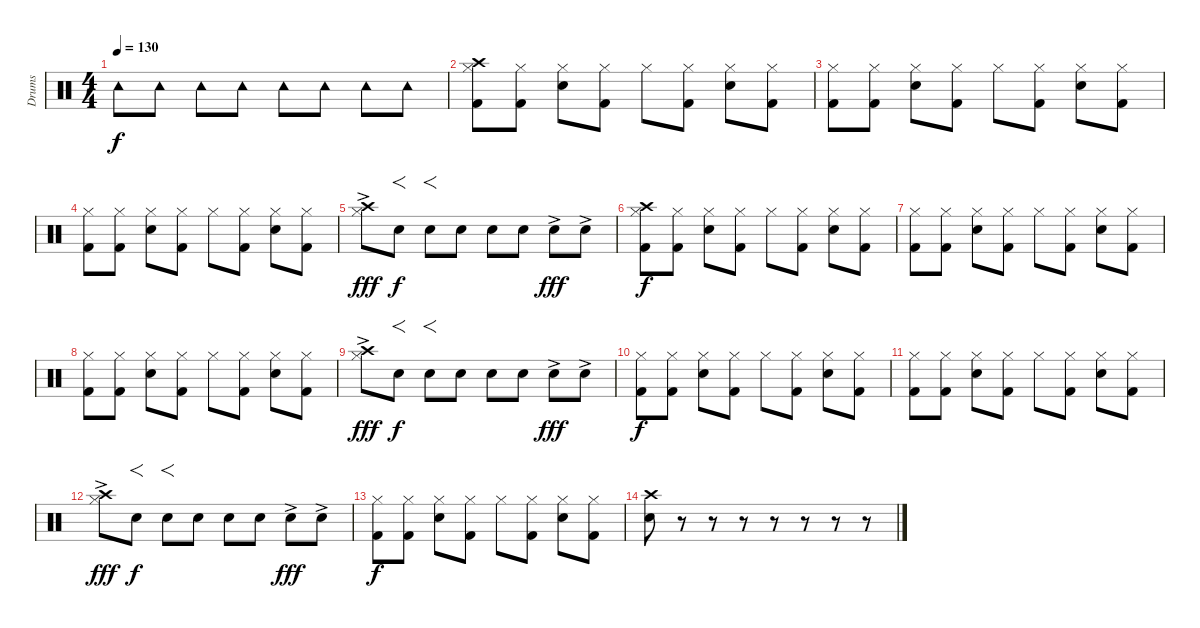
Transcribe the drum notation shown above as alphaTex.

\track ("Drums" "Drums") {instrument percussion}
\staff {score}
\articulation defaults
\ts (4 4)
\tempo 130
\clef neutral
\ks c "Tambourine (hit)".8{dy f} "Tambourine (hit)".8 "Tambourine (hit)".8 "Tambourine (hit)".8 "Tambourine (hit)".8 "Tambourine (hit)".8 "Tambourine (hit)".8 "Tambourine (hit)".8
|
("Crash high (hit)" "Hi-Hat (closed)" "Kick (hit) 2").8 ("Hi-Hat (closed)" "Kick (hit) 2").8 ("Hi-Hat (closed)" "Snare (hit) 2").8 ("Hi-Hat (closed)" "Kick (hit) 2").8 "Hi-Hat (closed)".8 ("Hi-Hat (closed)" "Kick (hit) 2").8 ("Hi-Hat (closed)" "Snare (hit) 2").8 ("Hi-Hat (closed)" "Kick (hit) 2").8 |
("Hi-Hat (closed)" "Kick (hit) 2").8 ("Hi-Hat (closed)" "Kick (hit) 2").8 ("Hi-Hat (closed)" "Snare (hit) 2").8 ("Hi-Hat (closed)" "Kick (hit) 2").8 "Hi-Hat (closed)".8 ("Hi-Hat (closed)" "Kick (hit) 2").8 ("Hi-Hat (closed)" "Snare (hit) 2").8 ("Hi-Hat (closed)" "Kick (hit) 2").8 |
("Hi-Hat (closed)" "Kick (hit) 2").8 ("Hi-Hat (closed)" "Kick (hit) 2").8 ("Hi-Hat (closed)" "Snare (hit) 2").8 ("Hi-Hat (closed)" "Kick (hit) 2").8 "Hi-Hat (closed)".8 ("Hi-Hat (closed)" "Kick (hit) 2").8 ("Hi-Hat (closed)" "Snare (hit) 2").8 ("Hi-Hat (closed)" "Kick (hit) 2").8 |
("Crash high (hit)"{ac} "Hi-Hat (closed)").8{dy fff} "Snare (hit) 2".8{f dy f} "Snare (hit) 2".8{f} "Snare (hit) 2".8 "Snare (hit) 2".8 "Snare (hit) 2".8 "Snare (hit) 2"{ac}.8{dy fff} "Snare (hit) 2"{ac}.8 |
("Crash high (hit)" "Hi-Hat (closed)" "Kick (hit) 2").8{dy f} ("Hi-Hat (closed)" "Kick (hit) 2").8 ("Hi-Hat (closed)" "Snare (hit) 2").8 ("Hi-Hat (closed)" "Kick (hit) 2").8 "Hi-Hat (closed)".8 ("Hi-Hat (closed)" "Kick (hit) 2").8 ("Hi-Hat (closed)" "Snare (hit) 2").8 ("Hi-Hat (closed)" "Kick (hit) 2").8 |
("Hi-Hat (closed)" "Kick (hit) 2").8 ("Hi-Hat (closed)" "Kick (hit) 2").8 ("Hi-Hat (closed)" "Snare (hit) 2").8 ("Hi-Hat (closed)" "Kick (hit) 2").8 "Hi-Hat (closed)".8 ("Hi-Hat (closed)" "Kick (hit) 2").8 ("Hi-Hat (closed)" "Snare (hit) 2").8 ("Hi-Hat (closed)" "Kick (hit) 2").8 |
("Hi-Hat (closed)" "Kick (hit) 2").8 ("Hi-Hat (closed)" "Kick (hit) 2").8 ("Hi-Hat (closed)" "Snare (hit) 2").8 ("Hi-Hat (closed)" "Kick (hit) 2").8 "Hi-Hat (closed)".8 ("Hi-Hat (closed)" "Kick (hit) 2").8 ("Hi-Hat (closed)" "Snare (hit) 2").8 ("Hi-Hat (closed)" "Kick (hit) 2").8 |
("Crash high (hit)"{ac} "Hi-Hat (closed)").8{dy fff} "Snare (hit) 2".8{f dy f} "Snare (hit) 2".8{f} "Snare (hit) 2".8 "Snare (hit) 2".8 "Snare (hit) 2".8 "Snare (hit) 2"{ac}.8{dy fff} "Snare (hit) 2"{ac}.8 |
("Hi-Hat (closed)" "Kick (hit) 2").8{dy f} ("Hi-Hat (closed)" "Kick (hit) 2").8 ("Hi-Hat (closed)" "Snare (hit) 2").8 ("Hi-Hat (closed)" "Kick (hit) 2").8 "Hi-Hat (closed)".8 ("Hi-Hat (closed)" "Kick (hit) 2").8 ("Hi-Hat (closed)" "Snare (hit) 2").8 ("Hi-Hat (closed)" "Kick (hit) 2").8 |
("Hi-Hat (closed)" "Kick (hit) 2").8 ("Hi-Hat (closed)" "Kick (hit) 2").8 ("Hi-Hat (closed)" "Snare (hit) 2").8 ("Hi-Hat (closed)" "Kick (hit) 2").8 "Hi-Hat (closed)".8 ("Hi-Hat (closed)" "Kick (hit) 2").8 ("Hi-Hat (closed)" "Snare (hit) 2").8 ("Hi-Hat (closed)" "Kick (hit) 2").8 |
("Crash high (hit)"{ac} "Hi-Hat (closed)").8{dy fff} "Snare (hit) 2".8{f dy f} "Snare (hit) 2".8{f} "Snare (hit) 2".8 "Snare (hit) 2".8 "Snare (hit) 2".8 "Snare (hit) 2"{ac}.8{dy fff} "Snare (hit) 2"{ac}.8 |
("Hi-Hat (closed)" "Kick (hit) 2").8{dy f} ("Hi-Hat (closed)" "Kick (hit) 2").8 ("Hi-Hat (closed)" "Snare (hit) 2").8 ("Hi-Hat (closed)" "Kick (hit) 2").8 "Hi-Hat (closed)".8 ("Hi-Hat (closed)" "Kick (hit) 2").8 ("Hi-Hat (closed)" "Snare (hit) 2").8 ("Hi-Hat (closed)" "Kick (hit) 2").8 |
("Crash high (hit)" "Snare (hit) 2").8 r.8 r.8 r.8 r.8 r.8 r.8 r.8
